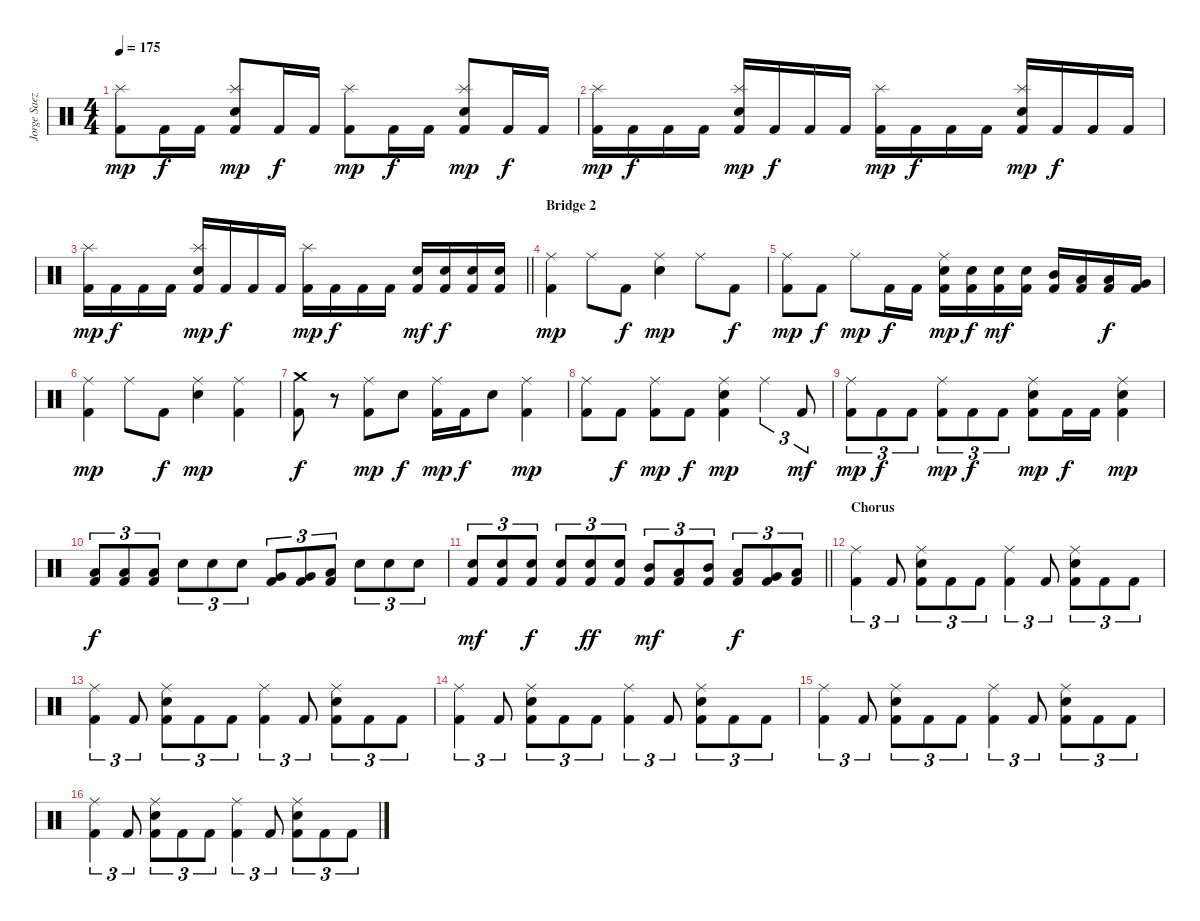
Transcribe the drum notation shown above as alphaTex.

\track ("Jorge Saez, Drums" "Jorge Saez") {instrument percussion}
\staff
\articulation defaults
\ts (4 4)
\tempo 175
\clef neutral
\ks c
("Kick (hit) 2" "Splash (hit)").8{dy mp} "Kick (hit) 2".16{dy f} "Kick (hit) 2".16 ("Kick (hit) 2" "Electric Snare (hit)" "Splash (hit)").8{dy mp} "Kick (hit) 2".16{dy f} "Kick (hit) 2".16 ("Kick (hit) 2" "Splash (hit)").8{dy mp} "Kick (hit) 2".16{dy f} "Kick (hit) 2".16 ("Kick (hit) 2" "Electric Snare (hit)" "Splash (hit)").8{dy mp} "Kick (hit) 2".16{dy f} "Kick (hit) 2".16 |
("Kick (hit) 2" "Splash (hit)").16{dy mp} "Kick (hit) 2".16{dy f} "Kick (hit) 2".16 "Kick (hit) 2".16 ("Kick (hit) 2" "Electric Snare (hit)" "Splash (hit)").16{dy mp} "Kick (hit) 2".16{dy f} "Kick (hit) 2".16 "Kick (hit) 2".16 ("Kick (hit) 2" "Splash (hit)").16{dy mp} "Kick (hit) 2".16{dy f} "Kick (hit) 2".16 "Kick (hit) 2".16 ("Kick (hit) 2" "Electric Snare (hit)" "Splash (hit)").16{dy mp} "Kick (hit) 2".16{dy f} "Kick (hit) 2".16 "Kick (hit) 2".16 |
\barLineRight lightlight
("Kick (hit) 2" "Splash (hit)").16{dy mp} "Kick (hit) 2".16{dy f} "Kick (hit) 2".16 "Kick (hit) 2".16 ("Kick (hit) 2" "Electric Snare (hit)" "Splash (hit)").16{dy mp} "Kick (hit) 2".16{dy f} "Kick (hit) 2".16 "Kick (hit) 2".16 ("Kick (hit) 2" "Splash (hit)").16{dy mp} "Kick (hit) 2".16{dy f} "Kick (hit) 2".16 "Kick (hit) 2".16 ("Kick (hit) 2" "Electric Snare (hit)").16{dy mf} ("Kick (hit) 2" "Electric Snare (hit)").16{dy f} ("Kick (hit) 2" "Electric Snare (hit)").16 ("Kick (hit) 2" "Electric Snare (hit)").16 |
\section ("" "Bridge 2")
("Kick (hit) 2" "Ride (middle)").4{dy mp} "Ride (middle)".8 "Kick (hit) 2".8{dy f} ("Electric Snare (hit)" "Ride (middle)").4{dy mp} "Ride (middle)".8 "Kick (hit) 2".8{dy f} |
("Kick (hit) 2" "Ride (middle)").8{dy mp} "Kick (hit) 2".8{dy f} "Ride (middle)".8{dy mp} "Kick (hit) 2".16{dy f} "Kick (hit) 2".16 ("Kick (hit) 2" "Electric Snare (hit)" "Ride (middle)").16{dy mp} ("Kick (hit) 2" "Electric Snare (hit)").16{dy f} ("Kick (hit) 2" "Electric Snare (hit)").16{dy mf} ("Kick (hit) 2" "Electric Snare (hit)").16 ("Kick (hit) 2" "Mid Tom (hit)").16 ("Kick (hit) 2" "Low Tom (hit)").16 ("Kick (hit) 2" "Low Tom (hit)").16{dy f} ("Kick (hit) 2" "Very Low Tom (hit)").16 |
("Kick (hit) 2" "Ride (middle)").4{dy mp} "Ride (middle)".8 "Kick (hit) 2".8{dy f} ("Electric Snare (hit)" "Ride (middle)").4{dy mp} ("Kick (hit) 2" "Ride (middle)").4 |
("Kick (hit) 2" "Crash medium (hit)").8{dy f} r.8 ("Kick (hit) 2" "Ride (middle)").8{dy mp} "Electric Snare (hit)".8{dy f} ("Kick (hit) 2" "Ride (middle)").16{dy mp} "Kick (hit) 2".16{dy f} "Electric Snare (hit)".8 ("Kick (hit) 2" "Ride (middle)").4{dy mp} |
("Kick (hit) 2" "Ride (middle)").8 "Kick (hit) 2".8{dy f} ("Kick (hit) 2" "Ride (middle)").8{dy mp} "Kick (hit) 2".8{dy f} ("Kick (hit) 2" "Electric Snare (hit)" "Ride (middle)").4{dy mp} "Ride (middle)".4{tu (3 2)} "Kick (hit) 2".8{tu (3 2) dy mf} |
("Kick (hit) 2" "Ride (middle)").8{tu (3 2) dy mp} "Kick (hit) 2".8{tu (3 2) dy f} "Kick (hit) 2".8{tu (3 2)} ("Kick (hit) 2" "Ride (middle)").8{tu (3 2) dy mp} "Kick (hit) 2".8{tu (3 2) dy f} "Kick (hit) 2".8{tu (3 2)} ("Kick (hit) 2" "Electric Snare (hit)" "Ride (middle)").8{dy mp} "Kick (hit) 2".16{dy f} "Kick (hit) 2".16 ("Kick (hit) 2" "Electric Snare (hit)" "Ride (middle)").4{dy mp} |
("Kick (hit) 2" "Low Tom (hit)").8{tu (3 2) dy f} ("Kick (hit) 2" "Low Tom (hit)").8{tu (3 2)} ("Kick (hit) 2" "Low Tom (hit)").8{tu (3 2)} "Electric Snare (hit)".8{tu (3 2)} "Electric Snare (hit)".8{tu (3 2)} "Electric Snare (hit)".8{tu (3 2)} ("Kick (hit) 2" "Very Low Tom (hit)").8{tu (3 2)} ("Kick (hit) 2" "Very Low Tom (hit)").8{tu (3 2)} ("Kick (hit) 2" "Low Tom (hit)").8{tu (3 2)} "Electric Snare (hit)".8{tu (3 2)} "Electric Snare (hit)".8{tu (3 2)} "Electric Snare (hit)".8{tu (3 2)} |
\barLineRight lightlight
("Kick (hit) 2" "Electric Snare (hit)").8{tu (3 2) dy mf} ("Kick (hit) 2" "Electric Snare (hit)").8{tu (3 2)} ("Kick (hit) 2" "Electric Snare (hit)").8{tu (3 2) dy f} ("Kick (hit) 2" "Electric Snare (hit)").8{tu (3 2)} ("Kick (hit) 2" "Electric Snare (hit)").8{tu (3 2) dy ff} ("Kick (hit) 2" "Electric Snare (hit)").8{tu (3 2)} ("Kick (hit) 2" "Mid Tom (hit)").8{tu (3 2) dy mf} ("Kick (hit) 2" "Low Tom (hit)").8{tu (3 2)} ("Kick (hit) 2" "Mid Tom (hit)").8{tu (3 2)} ("Kick (hit) 2" "Low Tom (hit)").8{tu (3 2) dy f} ("Kick (hit) 2" "Very Low Tom (hit)").8{tu (3 2)} ("Kick (hit) 2" "Low Floor Tom (hit)").8{tu (3 2)} |
\section ("" "Chorus")
("Kick (hit) 2" "Ride (middle)").4{tu (3 2)} "Kick (hit) 2".8{tu (3 2)} ("Kick (hit) 2" "Electric Snare (hit)" "Ride (middle)").8{tu (3 2)} "Kick (hit) 2".8{tu (3 2)} "Kick (hit) 2".8{tu (3 2)} ("Kick (hit) 2" "Ride (middle)").4{tu (3 2)} "Kick (hit) 2".8{tu (3 2)} ("Kick (hit) 2" "Electric Snare (hit)" "Ride (middle)").8{tu (3 2)} "Kick (hit) 2".8{tu (3 2)} "Kick (hit) 2".8{tu (3 2)} |
("Kick (hit) 2" "Ride (middle)").4{tu (3 2)} "Kick (hit) 2".8{tu (3 2)} ("Kick (hit) 2" "Electric Snare (hit)" "Ride (middle)").8{tu (3 2)} "Kick (hit) 2".8{tu (3 2)} "Kick (hit) 2".8{tu (3 2)} ("Kick (hit) 2" "Ride (middle)").4{tu (3 2)} "Kick (hit) 2".8{tu (3 2)} ("Kick (hit) 2" "Electric Snare (hit)" "Ride (middle)").8{tu (3 2)} "Kick (hit) 2".8{tu (3 2)} "Kick (hit) 2".8{tu (3 2)} |
("Kick (hit) 2" "Ride (middle)").4{tu (3 2)} "Kick (hit) 2".8{tu (3 2)} ("Kick (hit) 2" "Electric Snare (hit)" "Ride (middle)").8{tu (3 2)} "Kick (hit) 2".8{tu (3 2)} "Kick (hit) 2".8{tu (3 2)} ("Kick (hit) 2" "Ride (middle)").4{tu (3 2)} "Kick (hit) 2".8{tu (3 2)} ("Kick (hit) 2" "Electric Snare (hit)" "Ride (middle)").8{tu (3 2)} "Kick (hit) 2".8{tu (3 2)} "Kick (hit) 2".8{tu (3 2)} |
("Kick (hit) 2" "Ride (middle)").4{tu (3 2)} "Kick (hit) 2".8{tu (3 2)} ("Kick (hit) 2" "Electric Snare (hit)" "Ride (middle)").8{tu (3 2)} "Kick (hit) 2".8{tu (3 2)} "Kick (hit) 2".8{tu (3 2)} ("Kick (hit) 2" "Ride (middle)").4{tu (3 2)} "Kick (hit) 2".8{tu (3 2)} ("Kick (hit) 2" "Electric Snare (hit)" "Ride (middle)").8{tu (3 2)} "Kick (hit) 2".8{tu (3 2)} "Kick (hit) 2".8{tu (3 2)} |
("Kick (hit) 2" "Ride (middle)").4{tu (3 2)} "Kick (hit) 2".8{tu (3 2)} ("Kick (hit) 2" "Electric Snare (hit)" "Ride (middle)").8{tu (3 2)} "Kick (hit) 2".8{tu (3 2)} "Kick (hit) 2".8{tu (3 2)} ("Kick (hit) 2" "Ride (middle)").4{tu (3 2)} "Kick (hit) 2".8{tu (3 2)} ("Kick (hit) 2" "Electric Snare (hit)" "Ride (middle)").8{tu (3 2)} "Kick (hit) 2".8{tu (3 2)} "Kick (hit) 2".8{tu (3 2)}
